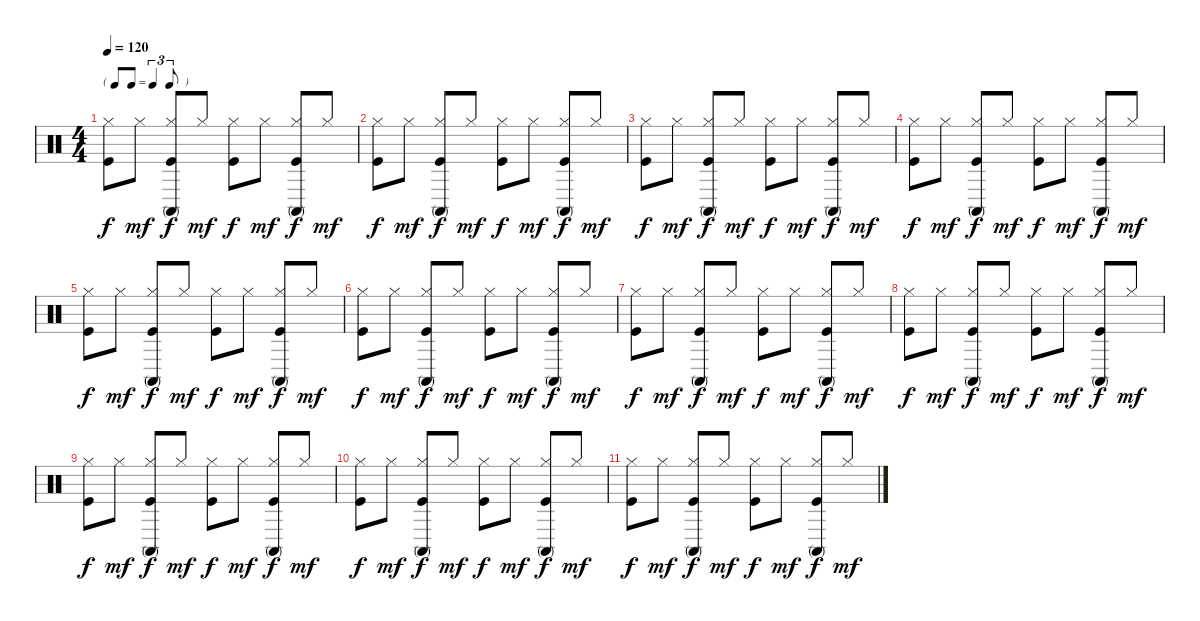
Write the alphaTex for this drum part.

\track "" {instrument percussion}
\staff {score}
\articulation defaults
\ts (4 4)
\tf triplet8th
\tempo 120
\clef neutral
\ks c
("Hi-Hat (closed)" "Kick (hit)").8{dy f} "Hi-Hat (closed)".8{dy mf} ("Conga high (mute)" "Hi-Hat (closed)" "Kick (hit)").8{dy f} "Hi-Hat (closed)".8{dy mf} ("Hi-Hat (closed)" "Kick (hit)").8{dy f} "Hi-Hat (closed)".8{dy mf} ("Conga high (mute)" "Hi-Hat (closed)" "Kick (hit)").8{dy f} "Hi-Hat (closed)".8{dy mf} |
("Hi-Hat (closed)" "Kick (hit)").8{dy f} "Hi-Hat (closed)".8{dy mf} ("Conga high (mute)" "Hi-Hat (closed)" "Kick (hit)").8{dy f} "Hi-Hat (closed)".8{dy mf} ("Hi-Hat (closed)" "Kick (hit)").8{dy f} "Hi-Hat (closed)".8{dy mf} ("Conga high (mute)" "Hi-Hat (closed)" "Kick (hit)").8{dy f} "Hi-Hat (closed)".8{dy mf} |
("Hi-Hat (closed)" "Kick (hit)").8{dy f} "Hi-Hat (closed)".8{dy mf} ("Conga high (mute)" "Hi-Hat (closed)" "Kick (hit)").8{dy f} "Hi-Hat (closed)".8{dy mf} ("Hi-Hat (closed)" "Kick (hit)").8{dy f} "Hi-Hat (closed)".8{dy mf} ("Conga high (mute)" "Hi-Hat (closed)" "Kick (hit)").8{dy f} "Hi-Hat (closed)".8{dy mf} |
("Hi-Hat (closed)" "Kick (hit)").8{dy f} "Hi-Hat (closed)".8{dy mf} ("Conga high (mute)" "Hi-Hat (closed)" "Kick (hit)").8{dy f} "Hi-Hat (closed)".8{dy mf} ("Hi-Hat (closed)" "Kick (hit)").8{dy f} "Hi-Hat (closed)".8{dy mf} ("Conga high (mute)" "Hi-Hat (closed)" "Kick (hit)").8{dy f} "Hi-Hat (closed)".8{dy mf} |
("Hi-Hat (closed)" "Kick (hit)").8{dy f} "Hi-Hat (closed)".8{dy mf} ("Conga high (mute)" "Hi-Hat (closed)" "Kick (hit)").8{dy f} "Hi-Hat (closed)".8{dy mf} ("Hi-Hat (closed)" "Kick (hit)").8{dy f} "Hi-Hat (closed)".8{dy mf} ("Conga high (mute)" "Hi-Hat (closed)" "Kick (hit)").8{dy f} "Hi-Hat (closed)".8{dy mf} |
("Hi-Hat (closed)" "Kick (hit)").8{dy f} "Hi-Hat (closed)".8{dy mf} ("Conga high (mute)" "Hi-Hat (closed)" "Kick (hit)").8{dy f} "Hi-Hat (closed)".8{dy mf} ("Hi-Hat (closed)" "Kick (hit)").8{dy f} "Hi-Hat (closed)".8{dy mf} ("Conga high (mute)" "Hi-Hat (closed)" "Kick (hit)").8{dy f} "Hi-Hat (closed)".8{dy mf} |
("Hi-Hat (closed)" "Kick (hit)").8{dy f} "Hi-Hat (closed)".8{dy mf} ("Conga high (mute)" "Hi-Hat (closed)" "Kick (hit)").8{dy f} "Hi-Hat (closed)".8{dy mf} ("Hi-Hat (closed)" "Kick (hit)").8{dy f} "Hi-Hat (closed)".8{dy mf} ("Conga high (mute)" "Hi-Hat (closed)" "Kick (hit)").8{dy f} "Hi-Hat (closed)".8{dy mf} |
("Hi-Hat (closed)" "Kick (hit)").8{dy f} "Hi-Hat (closed)".8{dy mf} ("Conga high (mute)" "Hi-Hat (closed)" "Kick (hit)").8{dy f} "Hi-Hat (closed)".8{dy mf} ("Hi-Hat (closed)" "Kick (hit)").8{dy f} "Hi-Hat (closed)".8{dy mf} ("Conga high (mute)" "Hi-Hat (closed)" "Kick (hit)").8{dy f} "Hi-Hat (closed)".8{dy mf} |
("Hi-Hat (closed)" "Kick (hit)").8{dy f} "Hi-Hat (closed)".8{dy mf} ("Conga high (mute)" "Hi-Hat (closed)" "Kick (hit)").8{dy f} "Hi-Hat (closed)".8{dy mf} ("Hi-Hat (closed)" "Kick (hit)").8{dy f} "Hi-Hat (closed)".8{dy mf} ("Conga high (mute)" "Hi-Hat (closed)" "Kick (hit)").8{dy f} "Hi-Hat (closed)".8{dy mf} |
("Hi-Hat (closed)" "Kick (hit)").8{dy f} "Hi-Hat (closed)".8{dy mf} ("Conga high (mute)" "Hi-Hat (closed)" "Kick (hit)").8{dy f} "Hi-Hat (closed)".8{dy mf} ("Hi-Hat (closed)" "Kick (hit)").8{dy f} "Hi-Hat (closed)".8{dy mf} ("Conga high (mute)" "Hi-Hat (closed)" "Kick (hit)").8{dy f} "Hi-Hat (closed)".8{dy mf} |
("Hi-Hat (closed)" "Kick (hit)").8{dy f} "Hi-Hat (closed)".8{dy mf} ("Conga high (mute)" "Hi-Hat (closed)" "Kick (hit)").8{dy f} "Hi-Hat (closed)".8{dy mf} ("Hi-Hat (closed)" "Kick (hit)").8{dy f} "Hi-Hat (closed)".8{dy mf} ("Conga high (mute)" "Hi-Hat (closed)" "Kick (hit)").8{dy f} "Hi-Hat (closed)".8{dy mf}
